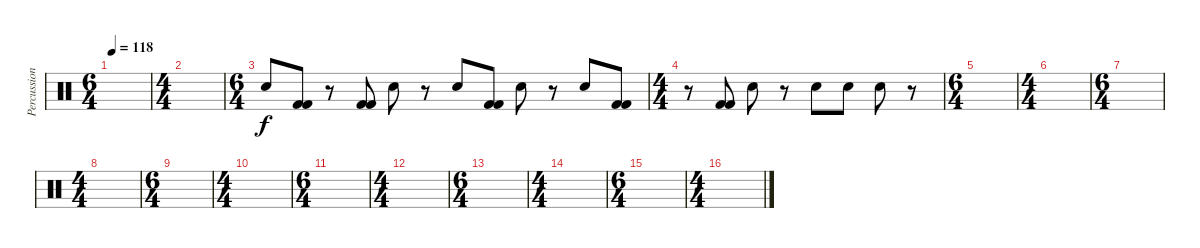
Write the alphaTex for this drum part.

\track ("Percussion" "Percussion") {instrument percussion}
\staff {score}
\articulation defaults
\ts (6 4)
\tempo 118
\clef neutral
\ks c
|
\ts (4 4)
|
\ts (6 4)
"Electric Snare (hit)".8 ("Kick (hit) 2" "Kick (hit) 2").8 r.8 ("Kick (hit) 2" "Kick (hit) 2").8 "Electric Snare (hit)".8 r.8 "Electric Snare (hit)".8 ("Kick (hit) 2" "Kick (hit) 2").8 "Electric Snare (hit)".8 r.8 "Electric Snare (hit)".8 ("Kick (hit) 2" "Kick (hit) 2").8 |
\ts (4 4)
r.8 ("Kick (hit) 2" "Kick (hit) 2").8 "Electric Snare (hit)".8 r.8 "Electric Snare (hit)".8 "Electric Snare (hit)".8 "Electric Snare (hit)".8 r.8 |
\ts (6 4)
|
\ts (4 4)
|
\ts (6 4)
|
\ts (4 4)
|
\ts (6 4)
|
\ts (4 4)
|
\ts (6 4)
|
\ts (4 4)
|
\ts (6 4)
|
\ts (4 4)
|
\ts (6 4)
|
\ts (4 4)
